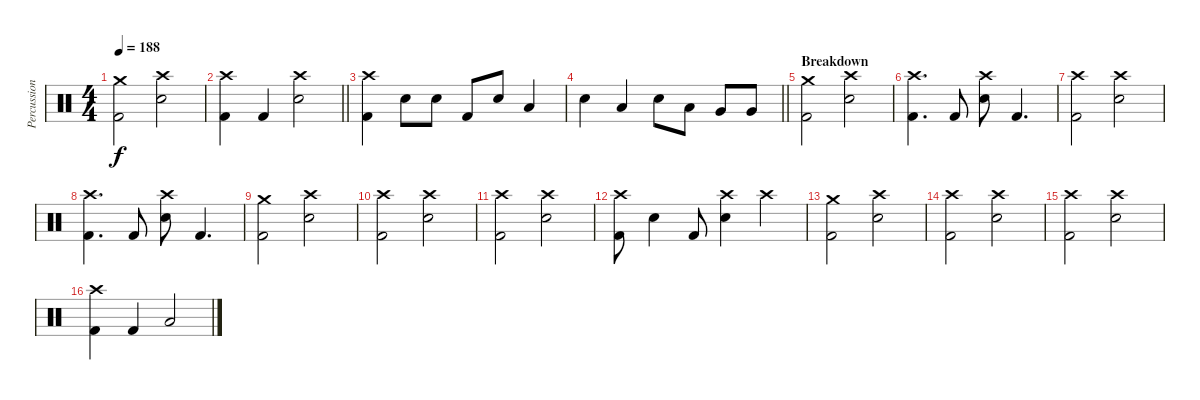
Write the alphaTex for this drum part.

\track ("Percussion" "Percussion") {instrument percussion}
\staff {score}
\articulation defaults
\ts (4 4)
\tempo 188
\clef neutral
\ks c
("Crash medium (hit)" "Kick (hit) 2").2{dy f} ("Crash high (hit)" "Snare (hit) 2").2 |
\barLineRight lightlight
("Crash high (hit)" "Kick (hit) 2").4 "Kick (hit) 2".4 ("Crash high (hit)" "Snare (hit) 2").2 |
("Crash high (hit)" "Kick (hit) 2").4 "Snare (hit) 2".8 "Snare (hit) 2".8 "Kick (hit) 2".8 "Snare (hit) 2".8 "Low Tom (hit)".4 |
\barLineRight lightlight "Snare (hit) 2".4 "Low Tom (hit)".4 "Snare (hit) 2".8 "Low Tom (hit)".8 "Very Low Tom (hit)".8 "Very Low Tom (hit)".8
|
\section ("" "Breakdown")
("Crash medium (hit)" "Kick (hit) 2").2 ("Crash high (hit)" "Snare (hit) 2").2 |
("Kick (hit) 2" "Crash high (hit)").4{d} "Kick (hit) 2".8 ("Snare (hit) 2" "Crash high (hit)").8 "Kick (hit) 2".4{d} |
("Crash high (hit)" "Kick (hit) 2").2 ("Crash high (hit)" "Snare (hit) 2").2 |
("Kick (hit) 2" "Crash high (hit)").4{d} "Kick (hit) 2".8 ("Snare (hit) 2" "Crash high (hit)").8 "Kick (hit) 2".4{d} |
("Crash medium (hit)" "Kick (hit) 2").2 ("Crash high (hit)" "Snare (hit) 2").2 |
("Crash high (hit)" "Kick (hit) 2").2 ("Crash high (hit)" "Snare (hit) 2").2 |
("Crash high (hit)" "Kick (hit) 2").2 ("Crash high (hit)" "Snare (hit) 2").2 |
("Kick (hit) 2" "Crash high (hit)").8 "Snare (hit) 2".4 "Kick (hit) 2".8 ("Snare (hit) 2" "Crash high (hit)").4 "Crash high (hit)".4 |
("Crash medium (hit)" "Kick (hit) 2").2 ("Crash high (hit)" "Snare (hit) 2").2 |
("Crash high (hit)" "Kick (hit) 2").2 ("Crash high (hit)" "Snare (hit) 2").2 |
("Crash high (hit)" "Kick (hit) 2").2 ("Crash high (hit)" "Snare (hit) 2").2 |
("Crash high (hit)" "Kick (hit) 2").4 "Kick (hit) 2".4 "Low Tom (hit)".2
